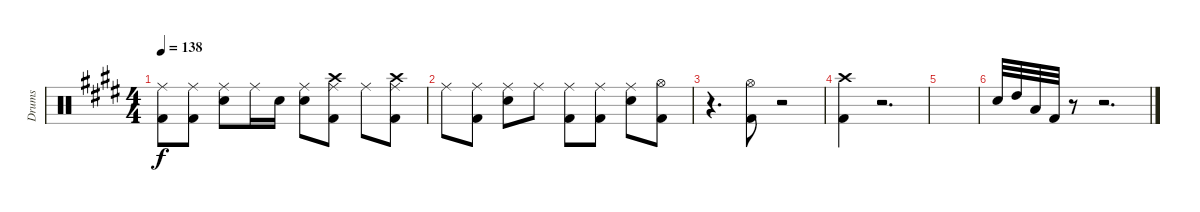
\track ("Drums" "Drums") {instrument percussion}
\staff {score}
\articulation defaults
\ts (4 4)
\tempo 138
\clef neutral
\ks e
("Kick (hit) 2" "Ride (middle)").8{dy f} ("Kick (hit) 2" "Ride (middle)").8 ("Snare (hit) 2" "Ride (middle)").8 "Ride (middle)".16 "Snare (hit) 2".16 ("Snare (hit) 2" "Ride (middle)").8 ("Crash high (hit)" "Kick (hit) 2" "Ride (middle)").8 "Ride (middle)".8 ("Crash high (hit)" "Kick (hit) 2" "Ride (middle)").8 |
"Ride (middle)".8 ("Kick (hit) 2" "Ride (middle)").8 ("Snare (hit) 2" "Ride (middle)").8 "Ride (middle)".8 ("Kick (hit) 2" "Ride (middle)").8 ("Kick (hit) 2" "Ride (middle)").8 ("Snare (hit) 2" "Ride (middle)").8 ("Hi-Hat (open)" "Kick (hit) 2").8 |
r.4{d} ("Kick (hit) 2" "Hi-Hat (open)").8 r.2 |
("Crash high (hit)" "Kick (hit) 2").4 r.2{d} |
|
"Snare (hit) 2".32 "High Tom (hit)".32 "Low Tom (hit)".32 "Kick (hit) 2".32 r.8 r.2{d}
